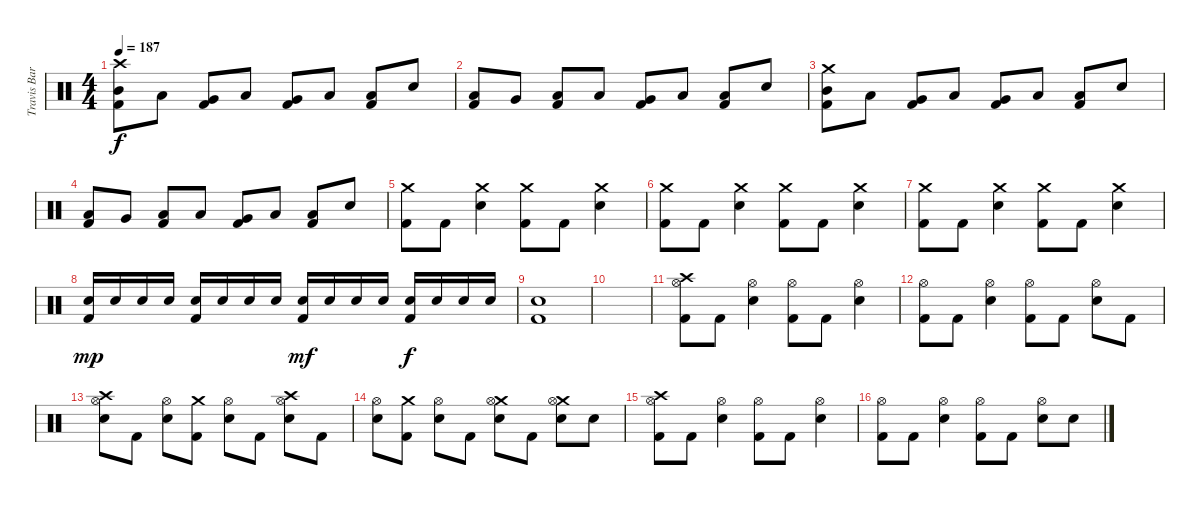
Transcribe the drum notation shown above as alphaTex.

\track ("Travis Barker Drums" "Travis Bar") {instrument percussion}
\staff {score}
\articulation defaults
\ts (4 4)
\tempo 187
\clef neutral
\ks c
("Crash high (hit)" "Mid Tom (hit)" "Kick (hit) 2").8{dy f} "Low Tom (hit)".8 ("Very Low Tom (hit)" "Kick (hit) 2").8 "Low Floor Tom (hit)".8 ("Very Low Tom (hit)" "Kick (hit) 2").8 "Low Floor Tom (hit)".8 ("Low Floor Tom (hit)" "Kick (hit) 2").8 "Electric Snare (hit)".8 |
("Low Tom (hit)" "Kick (hit) 2").8 "Very Low Tom (hit)".8 ("Low Floor Tom (hit)" "Kick (hit) 2").8 "Low Floor Tom (hit)".8 ("Very Low Tom (hit)" "Kick (hit) 2").8 "Low Floor Tom (hit)".8 ("Low Floor Tom (hit)" "Kick (hit) 2").8 "Electric Snare (hit)".8 |
("Crash medium (hit)" "Mid Tom (hit)" "Kick (hit) 2").8 "Low Tom (hit)".8 ("Very Low Tom (hit)" "Kick (hit) 2").8 "Low Floor Tom (hit)".8 ("Very Low Tom (hit)" "Kick (hit) 2").8 "Low Floor Tom (hit)".8 ("Low Floor Tom (hit)" "Kick (hit) 2").8 "Electric Snare (hit)".8 |
("Low Tom (hit)" "Kick (hit) 2").8 "Very Low Tom (hit)".8 ("Low Floor Tom (hit)" "Kick (hit) 2").8 "Low Floor Tom (hit)".8 ("Very Low Tom (hit)" "Kick (hit) 2").8 "Low Floor Tom (hit)".8 ("Low Floor Tom (hit)" "Kick (hit) 2").8 "Electric Snare (hit)".8 |
("Crash medium (hit)" "Kick (hit) 2").8 "Kick (hit) 2".8 ("Crash medium (hit)" "Electric Snare (hit)").4 ("Crash medium (hit)" "Kick (hit) 2").8 "Kick (hit) 2".8 ("Crash medium (hit)" "Electric Snare (hit)").4 |
("Crash medium (hit)" "Kick (hit) 2").8 "Kick (hit) 2".8 ("Crash medium (hit)" "Electric Snare (hit)").4 ("Crash medium (hit)" "Kick (hit) 2").8 "Kick (hit) 2".8 ("Crash medium (hit)" "Electric Snare (hit)").4 |
("Crash medium (hit)" "Kick (hit) 2").8 "Kick (hit) 2".8 ("Crash medium (hit)" "Electric Snare (hit)").4 ("Crash medium (hit)" "Kick (hit) 2").8 "Kick (hit) 2".8 ("Crash medium (hit)" "Electric Snare (hit)").4 |
("Electric Snare (hit)" "Kick (hit) 2").16{dy mp} "Electric Snare (hit)".16 "Electric Snare (hit)".16 "Electric Snare (hit)".16 ("Electric Snare (hit)" "Kick (hit) 2").16 "Electric Snare (hit)".16 "Electric Snare (hit)".16 "Electric Snare (hit)".16 ("Electric Snare (hit)" "Kick (hit) 2").16{dy mf} "Electric Snare (hit)".16 "Electric Snare (hit)".16 "Electric Snare (hit)".16 ("Electric Snare (hit)" "Kick (hit) 2").16{dy f} "Electric Snare (hit)".16 "Electric Snare (hit)".16 "Electric Snare (hit)".16 |
("Electric Snare (hit)" "Kick (hit) 2").1 |
|
("Crash high (hit)" "Hi-Hat (open)" "Kick (hit) 2").8 "Kick (hit) 2".8 ("Hi-Hat (open)" "Electric Snare (hit)").4 ("Hi-Hat (open)" "Kick (hit) 2").8 "Kick (hit) 2".8 ("Hi-Hat (open)" "Electric Snare (hit)").4 |
("Hi-Hat (open)" "Kick (hit) 2").8 "Kick (hit) 2".8 ("Hi-Hat (open)" "Electric Snare (hit)").4 ("Hi-Hat (open)" "Kick (hit) 2").8 "Kick (hit) 2".8 ("Hi-Hat (open)" "Electric Snare (hit)").8 "Kick (hit) 2".8 |
("Crash high (hit)" "Hi-Hat (open)" "Electric Snare (hit)").8 "Kick (hit) 2".8 ("Hi-Hat (open)" "Electric Snare (hit)").8 ("Crash medium (hit)" "Kick (hit) 2").8 ("Hi-Hat (open)" "Electric Snare (hit)").8 "Kick (hit) 2".8 ("Crash high (hit)" "Hi-Hat (open)" "Electric Snare (hit)").8 "Kick (hit) 2".8 |
("Hi-Hat (open)" "Electric Snare (hit)").8 ("Crash medium (hit)" "Kick (hit) 2").8 ("Hi-Hat (open)" "Electric Snare (hit)").8 "Kick (hit) 2".8 ("Crash medium (hit)" "Hi-Hat (open)" "Electric Snare (hit)").8 "Kick (hit) 2".8 ("Crash medium (hit)" "Hi-Hat (open)" "Electric Snare (hit)").8 "Electric Snare (hit)".8 |
("Crash high (hit)" "Hi-Hat (open)" "Kick (hit) 2").8 "Kick (hit) 2".8 ("Hi-Hat (open)" "Electric Snare (hit)").4 ("Hi-Hat (open)" "Kick (hit) 2").8 "Kick (hit) 2".8 ("Hi-Hat (open)" "Electric Snare (hit)").4 |
("Hi-Hat (open)" "Kick (hit) 2").8 "Kick (hit) 2".8 ("Hi-Hat (open)" "Electric Snare (hit)").4 ("Hi-Hat (open)" "Kick (hit) 2").8 "Kick (hit) 2".8 ("Hi-Hat (open)" "Electric Snare (hit)").8 "Electric Snare (hit)".8
